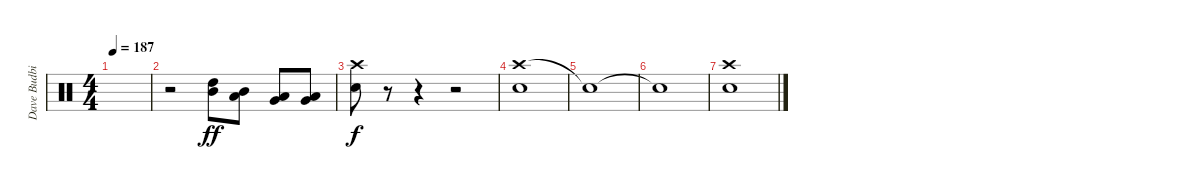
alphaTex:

\track ("Dave Budbill" "Dave Budbi") {instrument percussion}
\staff {score}
\articulation defaults
\ts (4 4)
\tempo 187
\clef neutral
\ks c
|
r.2 ("Mid Tom (hit)" "High Tom (hit)").8{dy ff} ("Low Tom (hit)" "Mid Tom (hit)").8 ("Very Low Tom (hit)" "Low Tom (hit)").8 ("Low Floor Tom (hit)" "Very Low Tom (hit)").8 |
("Crash high (hit)" "Snare (hit) 2").8{dy f} r.8 r.4 r.2 |
("Crash high (hit)" "Snare (hit) 2").1 |
"Snare (hit)"{t}.1 |
"Snare (hit)"{t}.1 |
("Crash high (hit)" "Snare (hit) 2").1
